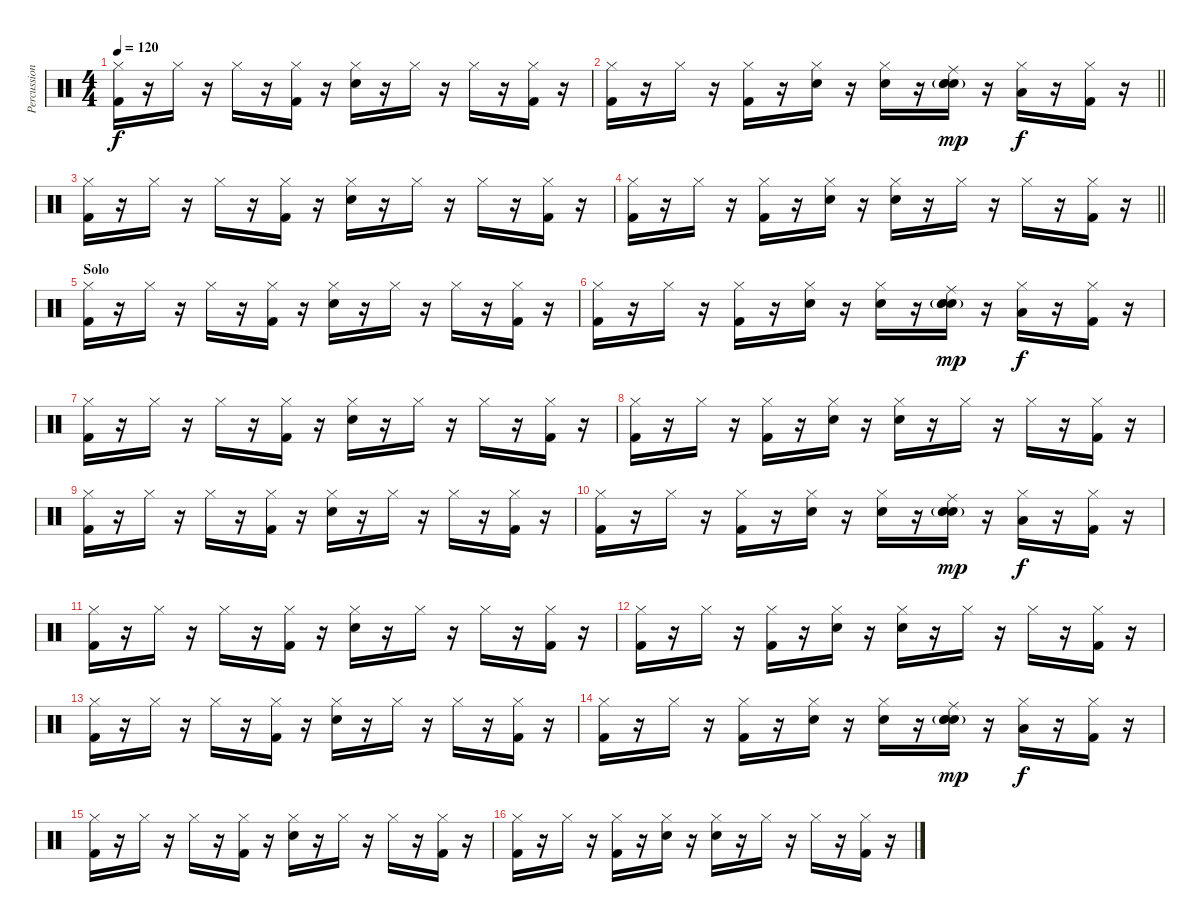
\track ("Percussion" "Percussion") {instrument percussion}
\staff {score}
\articulation defaults
\ts (4 4)
\tempo 120
\clef neutral
\ks c
("Hi-Hat (closed)" "Kick (hit) 2").16{dy f} r.16 "Hi-Hat (closed)".16 r.16 "Hi-Hat (closed)".16 r.16 ("Hi-Hat (closed)" "Kick (hit) 2").16 r.16 ("Hi-Hat (closed)" "Snare (hit) 2").16 r.16 "Hi-Hat (closed)".16 r.16 "Hi-Hat (closed)".16 r.16 ("Hi-Hat (closed)" "Kick (hit) 2").16 r.16 |
\barLineRight lightlight
("Hi-Hat (closed)" "Kick (hit) 2").16 r.16 "Hi-Hat (closed)".16 r.16 ("Hi-Hat (closed)" "Kick (hit) 2").16 r.16 ("Hi-Hat (closed)" "Snare (hit)").16 r.16 ("Hi-Hat (closed)" "Snare (hit) 2").16 r.16 ("Ride (middle)" "Snare (hit)"{g} "Electric Snare (hit)"{g} "Snare (hit) 2"{g}).16{dy mp} r.16 ("Hi-Hat (closed)" "Low Floor Tom (hit)").16{dy f} r.16 ("Hi-Hat (closed)" "Kick (hit) 2").16 r.16 |
("Hi-Hat (closed)" "Kick (hit) 2").16 r.16 "Hi-Hat (closed)".16 r.16 "Hi-Hat (closed)".16 r.16 ("Hi-Hat (closed)" "Kick (hit) 2").16 r.16 ("Hi-Hat (closed)" "Snare (hit) 2").16 r.16 "Hi-Hat (closed)".16 r.16 "Hi-Hat (closed)".16 r.16 ("Hi-Hat (closed)" "Kick (hit) 2").16 r.16 |
\barLineRight lightlight
("Hi-Hat (closed)" "Kick (hit) 2").16 r.16 "Hi-Hat (closed)".16 r.16 ("Hi-Hat (closed)" "Kick (hit) 2").16 r.16 ("Hi-Hat (closed)" "Snare (hit)").16 r.16 ("Hi-Hat (closed)" "Snare (hit) 2").16 r.16 "Hi-Hat (closed)".16 r.16 "Hi-Hat (closed)".16 r.16 ("Hi-Hat (closed)" "Kick (hit) 2").16 r.16 |
\section ("" "Solo")
("Hi-Hat (closed)" "Kick (hit) 2").16 r.16 "Hi-Hat (closed)".16 r.16 "Hi-Hat (closed)".16 r.16 ("Hi-Hat (closed)" "Kick (hit) 2").16 r.16 ("Hi-Hat (closed)" "Snare (hit) 2").16 r.16 "Hi-Hat (closed)".16 r.16 "Hi-Hat (closed)".16 r.16 ("Hi-Hat (closed)" "Kick (hit) 2").16 r.16 |
("Hi-Hat (closed)" "Kick (hit) 2").16 r.16 "Hi-Hat (closed)".16 r.16 ("Hi-Hat (closed)" "Kick (hit) 2").16 r.16 ("Hi-Hat (closed)" "Snare (hit)").16 r.16 ("Hi-Hat (closed)" "Snare (hit) 2").16 r.16 ("Ride (middle)" "Snare (hit)"{g} "Electric Snare (hit)"{g} "Snare (hit) 2"{g}).16{dy mp} r.16 ("Hi-Hat (closed)" "Low Floor Tom (hit)").16{dy f} r.16 ("Hi-Hat (closed)" "Kick (hit) 2").16 r.16 |
("Hi-Hat (closed)" "Kick (hit) 2").16 r.16 "Hi-Hat (closed)".16 r.16 "Hi-Hat (closed)".16 r.16 ("Hi-Hat (closed)" "Kick (hit) 2").16 r.16 ("Hi-Hat (closed)" "Snare (hit) 2").16 r.16 "Hi-Hat (closed)".16 r.16 "Hi-Hat (closed)".16 r.16 ("Hi-Hat (closed)" "Kick (hit) 2").16 r.16 |
("Hi-Hat (closed)" "Kick (hit) 2").16 r.16 "Hi-Hat (closed)".16 r.16 ("Hi-Hat (closed)" "Kick (hit) 2").16 r.16 ("Hi-Hat (closed)" "Snare (hit)").16 r.16 ("Hi-Hat (closed)" "Snare (hit) 2").16 r.16 "Hi-Hat (closed)".16 r.16 "Hi-Hat (closed)".16 r.16 ("Hi-Hat (closed)" "Kick (hit) 2").16 r.16 |
("Hi-Hat (closed)" "Kick (hit) 2").16 r.16 "Hi-Hat (closed)".16 r.16 "Hi-Hat (closed)".16 r.16 ("Hi-Hat (closed)" "Kick (hit) 2").16 r.16 ("Hi-Hat (closed)" "Snare (hit) 2").16 r.16 "Hi-Hat (closed)".16 r.16 "Hi-Hat (closed)".16 r.16 ("Hi-Hat (closed)" "Kick (hit) 2").16 r.16 |
("Hi-Hat (closed)" "Kick (hit) 2").16 r.16 "Hi-Hat (closed)".16 r.16 ("Hi-Hat (closed)" "Kick (hit) 2").16 r.16 ("Hi-Hat (closed)" "Snare (hit)").16 r.16 ("Hi-Hat (closed)" "Snare (hit) 2").16 r.16 ("Ride (middle)" "Snare (hit)"{g} "Electric Snare (hit)"{g} "Snare (hit) 2"{g}).16{dy mp} r.16 ("Hi-Hat (closed)" "Low Floor Tom (hit)").16{dy f} r.16 ("Hi-Hat (closed)" "Kick (hit) 2").16 r.16 |
("Hi-Hat (closed)" "Kick (hit) 2").16 r.16 "Hi-Hat (closed)".16 r.16 "Hi-Hat (closed)".16 r.16 ("Hi-Hat (closed)" "Kick (hit) 2").16 r.16 ("Hi-Hat (closed)" "Snare (hit) 2").16 r.16 "Hi-Hat (closed)".16 r.16 "Hi-Hat (closed)".16 r.16 ("Hi-Hat (closed)" "Kick (hit) 2").16 r.16 |
("Hi-Hat (closed)" "Kick (hit) 2").16 r.16 "Hi-Hat (closed)".16 r.16 ("Hi-Hat (closed)" "Kick (hit) 2").16 r.16 ("Hi-Hat (closed)" "Snare (hit)").16 r.16 ("Hi-Hat (closed)" "Snare (hit) 2").16 r.16 "Hi-Hat (closed)".16 r.16 "Hi-Hat (closed)".16 r.16 ("Hi-Hat (closed)" "Kick (hit) 2").16 r.16 |
("Hi-Hat (closed)" "Kick (hit) 2").16 r.16 "Hi-Hat (closed)".16 r.16 "Hi-Hat (closed)".16 r.16 ("Hi-Hat (closed)" "Kick (hit) 2").16 r.16 ("Hi-Hat (closed)" "Snare (hit) 2").16 r.16 "Hi-Hat (closed)".16 r.16 "Hi-Hat (closed)".16 r.16 ("Hi-Hat (closed)" "Kick (hit) 2").16 r.16 |
("Hi-Hat (closed)" "Kick (hit) 2").16 r.16 "Hi-Hat (closed)".16 r.16 ("Hi-Hat (closed)" "Kick (hit) 2").16 r.16 ("Hi-Hat (closed)" "Snare (hit)").16 r.16 ("Hi-Hat (closed)" "Snare (hit) 2").16 r.16 ("Ride (middle)" "Snare (hit)"{g} "Electric Snare (hit)"{g} "Snare (hit) 2"{g}).16{dy mp} r.16 ("Hi-Hat (closed)" "Low Floor Tom (hit)").16{dy f} r.16 ("Hi-Hat (closed)" "Kick (hit) 2").16 r.16 |
("Hi-Hat (closed)" "Kick (hit) 2").16 r.16 "Hi-Hat (closed)".16 r.16 "Hi-Hat (closed)".16 r.16 ("Hi-Hat (closed)" "Kick (hit) 2").16 r.16 ("Hi-Hat (closed)" "Snare (hit) 2").16 r.16 "Hi-Hat (closed)".16 r.16 "Hi-Hat (closed)".16 r.16 ("Hi-Hat (closed)" "Kick (hit) 2").16 r.16 |
("Hi-Hat (closed)" "Kick (hit) 2").16 r.16 "Hi-Hat (closed)".16 r.16 ("Hi-Hat (closed)" "Kick (hit) 2").16 r.16 ("Hi-Hat (closed)" "Snare (hit)").16 r.16 ("Hi-Hat (closed)" "Snare (hit) 2").16 r.16 "Hi-Hat (closed)".16 r.16 "Hi-Hat (closed)".16 r.16 ("Hi-Hat (closed)" "Kick (hit) 2").16 r.16
